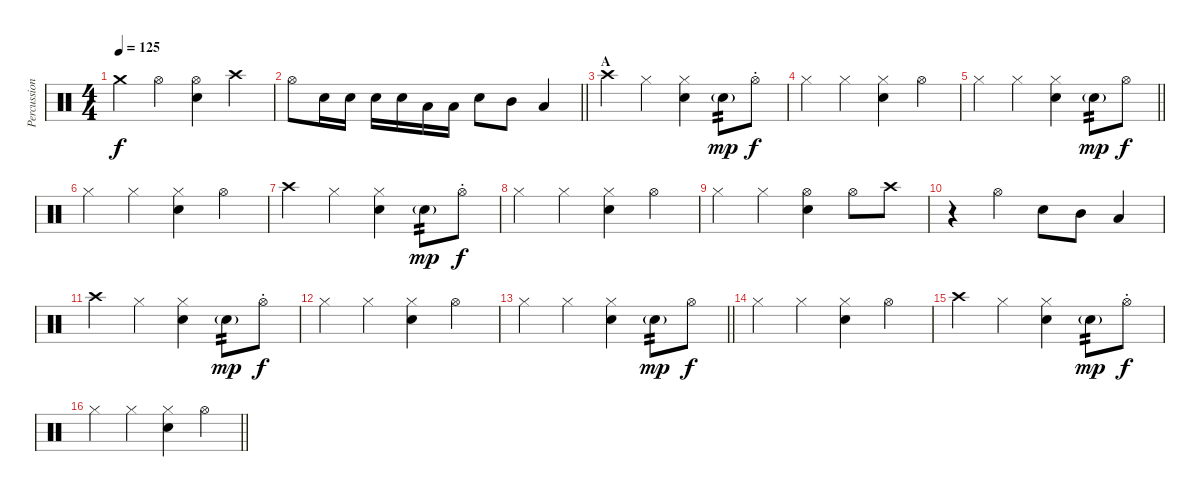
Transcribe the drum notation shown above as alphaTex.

\track ("Percussion" "Percussion") {instrument percussion}
\staff {score}
\articulation defaults
\ts (4 4)
\tempo 125
\clef neutral
\ks c "Crash medium (hit)".4{dy f} "Hi-Hat (open)".4
("Hi-Hat (open)" "Snare (hit) 2").4 "Crash high (hit)".4 |
\barLineRight lightlight "Hi-Hat (open)".8 "Snare (hit) 2".16 "Snare (hit) 2".16 "Snare (hit) 2".16 "Snare (hit) 2".16 "Low Tom (hit)".16 "Low Tom (hit)".16 "Snare (hit) 2".8 "Mid Tom (hit)".8 "Low Tom (hit)".4
|
\section ("" "A")
"Crash high (hit)".4 "Hi-Hat (closed)".4 ("Hi-Hat (closed)" "Snare (hit) 2").4 "Snare (hit) 2"{g}.8{tp 2 dy mp} "Hi-Hat (open)"{st}.8{dy f} |
"Hi-Hat (closed)".4 "Hi-Hat (closed)".4 ("Hi-Hat (closed)" "Snare (hit) 2").4 "Hi-Hat (open)".4 |
\barLineRight lightlight "Hi-Hat (closed)".4 "Hi-Hat (closed)".4
("Hi-Hat (closed)" "Snare (hit) 2").4 "Snare (hit) 2"{g}.8{tp 2 dy mp} "Hi-Hat (open)".8{dy f} |
"Hi-Hat (closed)".4 "Hi-Hat (closed)".4 ("Hi-Hat (closed)" "Snare (hit) 2").4 "Hi-Hat (open)".4 |
"Crash high (hit)".4 "Hi-Hat (closed)".4 ("Hi-Hat (closed)" "Snare (hit) 2").4 "Snare (hit) 2"{g}.8{tp 2 dy mp} "Hi-Hat (open)"{st}.8{dy f} |
"Hi-Hat (closed)".4 "Hi-Hat (closed)".4 ("Hi-Hat (closed)" "Snare (hit) 2").4 "Hi-Hat (open)".4 |
"Hi-Hat (closed)".4 "Hi-Hat (closed)".4 ("Hi-Hat (open)" "Snare (hit) 2").4 "Hi-Hat (open)".8 "Crash high (hit)".8 |
r.4 "Hi-Hat (open)".4 "Snare (hit) 2".8 "Mid Tom (hit)".8 "Low Tom (hit)".4 |
"Crash high (hit)".4 "Hi-Hat (closed)".4 ("Hi-Hat (closed)" "Snare (hit) 2").4 "Snare (hit) 2"{g}.8{tp 2 dy mp} "Hi-Hat (open)"{st}.8{dy f} |
"Hi-Hat (closed)".4 "Hi-Hat (closed)".4 ("Hi-Hat (closed)" "Snare (hit) 2").4 "Hi-Hat (open)".4 |
\barLineRight lightlight "Hi-Hat (closed)".4 "Hi-Hat (closed)".4
("Hi-Hat (closed)" "Snare (hit) 2").4 "Snare (hit) 2"{g}.8{tp 2 dy mp} "Hi-Hat (open)".8{dy f} |
"Hi-Hat (closed)".4 "Hi-Hat (closed)".4 ("Hi-Hat (closed)" "Snare (hit) 2").4 "Hi-Hat (open)".4 |
"Crash high (hit)".4 "Hi-Hat (closed)".4 ("Hi-Hat (closed)" "Snare (hit) 2").4 "Snare (hit) 2"{g}.8{tp 2 dy mp} "Hi-Hat (open)"{st}.8{dy f} |
\barLineRight lightlight "Hi-Hat (closed)".4 "Hi-Hat (closed)".4
("Hi-Hat (closed)" "Snare (hit) 2").4 "Hi-Hat (open)".4
